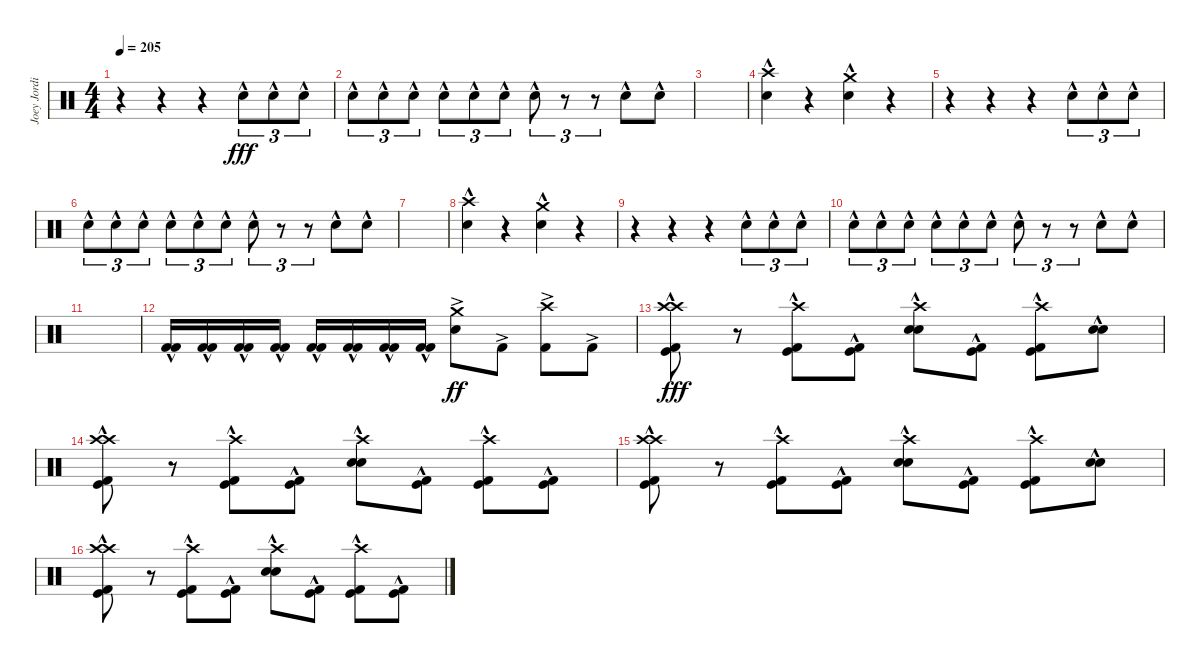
\track ("Joey Jordison" "Joey Jordi") {instrument percussion}
\staff {score}
\articulation defaults
\ts (4 4)
\tempo 205
\clef neutral
\ks c
r.4{dy fff} r.4 r.4 "Electric Snare (hit)"{hac}.8{tu (3 2)} "Electric Snare (hit)"{hac}.8{tu (3 2)} "Electric Snare (hit)"{hac}.8{tu (3 2)} |
"Electric Snare (hit)"{hac}.8{tu (3 2)} "Electric Snare (hit)"{hac}.8{tu (3 2)} "Electric Snare (hit)"{hac}.8{tu (3 2)} "Electric Snare (hit)"{hac}.8{tu (3 2)} "Electric Snare (hit)"{hac}.8{tu (3 2)} "Electric Snare (hit)"{hac}.8{tu (3 2)} "Electric Snare (hit)"{hac}.8{tu (3 2)} r.8{tu (3 2)} r.8{tu (3 2)} "Electric Snare (hit)"{hac}.8 "Electric Snare (hit)"{hac}.8 |
|
("Crash high (hit)"{hac} "Electric Snare (hit)"{hac}).4 r.4 ("Crash medium (hit)"{hac} "Electric Snare (hit)"{hac}).4 r.4 |
r.4 r.4 r.4 "Electric Snare (hit)"{hac}.8{tu (3 2)} "Electric Snare (hit)"{hac}.8{tu (3 2)} "Electric Snare (hit)"{hac}.8{tu (3 2)} |
"Electric Snare (hit)"{hac}.8{tu (3 2)} "Electric Snare (hit)"{hac}.8{tu (3 2)} "Electric Snare (hit)"{hac}.8{tu (3 2)} "Electric Snare (hit)"{hac}.8{tu (3 2)} "Electric Snare (hit)"{hac}.8{tu (3 2)} "Electric Snare (hit)"{hac}.8{tu (3 2)} "Electric Snare (hit)"{hac}.8{tu (3 2)} r.8{tu (3 2)} r.8{tu (3 2)} "Electric Snare (hit)"{hac}.8 "Electric Snare (hit)"{hac}.8 |
|
("Crash high (hit)"{hac} "Electric Snare (hit)"{hac}).4 r.4 ("Crash medium (hit)"{hac} "Electric Snare (hit)"{hac}).4 r.4 |
r.4 r.4 r.4 "Electric Snare (hit)"{hac}.8{tu (3 2)} "Electric Snare (hit)"{hac}.8{tu (3 2)} "Electric Snare (hit)"{hac}.8{tu (3 2)} |
"Electric Snare (hit)"{hac}.8{tu (3 2)} "Electric Snare (hit)"{hac}.8{tu (3 2)} "Electric Snare (hit)"{hac}.8{tu (3 2)} "Electric Snare (hit)"{hac}.8{tu (3 2)} "Electric Snare (hit)"{hac}.8{tu (3 2)} "Electric Snare (hit)"{hac}.8{tu (3 2)} "Electric Snare (hit)"{hac}.8{tu (3 2)} r.8{tu (3 2)} r.8{tu (3 2)} "Electric Snare (hit)"{hac}.8 "Electric Snare (hit)"{hac}.8 |
|
("Kick (hit) 2"{hac} "Kick (hit) 2"{hac}).16 ("Kick (hit) 2"{hac} "Kick (hit) 2"{hac}).16 ("Kick (hit) 2"{hac} "Kick (hit) 2"{hac}).16 ("Kick (hit) 2"{hac} "Kick (hit) 2"{hac}).16 ("Kick (hit) 2"{hac} "Kick (hit) 2"{hac}).16 ("Kick (hit) 2"{hac} "Kick (hit) 2"{hac}).16 ("Kick (hit) 2"{hac} "Kick (hit) 2"{hac}).16 ("Kick (hit) 2"{hac} "Kick (hit) 2"{hac}).16 ("Crash medium (hit)" "Electric Snare (hit)"{ac}).8{dy ff} "Kick (hit) 2"{ac}.8 ("Crash high (hit)"{ac} "Kick (hit) 2"{ac}).8 "Kick (hit) 2"{ac}.8 |
("Crash high (hit)"{hac} "Crash high (hit)"{hac} "Kick (hit)"{hac} "Kick (hit) 2"{hac}).8{dy fff} r.8 ("Crash high (hit)"{hac} "Kick (hit)"{hac} "Kick (hit) 2"{hac}).8 ("Kick (hit)"{hac} "Kick (hit) 2"{hac}).8 ("Crash high (hit)"{hac} "Electric Snare (hit)"{hac} "Electric Snare (hit)"{hac}).8 ("Kick (hit)"{hac} "Kick (hit) 2"{hac}).8 ("Crash high (hit)"{hac} "Kick (hit)"{hac} "Kick (hit) 2"{hac}).8 ("Electric Snare (hit)"{hac} "Electric Snare (hit)"{hac}).8 |
("Crash high (hit)"{hac} "Crash high (hit)"{hac} "Kick (hit)"{hac} "Kick (hit) 2"{hac}).8 r.8 ("Crash high (hit)"{hac} "Kick (hit)"{hac} "Kick (hit) 2"{hac}).8 ("Kick (hit)"{hac} "Kick (hit) 2"{hac}).8 ("Crash high (hit)"{hac} "Electric Snare (hit)"{hac} "Electric Snare (hit)"{hac}).8 ("Kick (hit)"{hac} "Kick (hit) 2"{hac}).8 ("Crash high (hit)"{hac} "Kick (hit)"{hac} "Kick (hit) 2"{hac}).8 ("Kick (hit)"{hac} "Kick (hit) 2"{hac}).8 |
("Crash high (hit)"{hac} "Crash high (hit)"{hac} "Kick (hit)"{hac} "Kick (hit) 2"{hac}).8 r.8 ("Crash high (hit)"{hac} "Kick (hit)"{hac} "Kick (hit) 2"{hac}).8 ("Kick (hit)"{hac} "Kick (hit) 2"{hac}).8 ("Crash high (hit)"{hac} "Electric Snare (hit)"{hac} "Electric Snare (hit)"{hac}).8 ("Kick (hit)"{hac} "Kick (hit) 2"{hac}).8 ("Crash high (hit)"{hac} "Kick (hit)"{hac} "Kick (hit) 2"{hac}).8 ("Electric Snare (hit)"{hac} "Electric Snare (hit)"{hac}).8 |
("Crash high (hit)"{hac} "Crash high (hit)"{hac} "Kick (hit)"{hac} "Kick (hit) 2"{hac}).8 r.8 ("Crash high (hit)"{hac} "Kick (hit)"{hac} "Kick (hit) 2"{hac}).8 ("Kick (hit)"{hac} "Kick (hit) 2"{hac}).8 ("Crash high (hit)"{hac} "Electric Snare (hit)"{hac} "Electric Snare (hit)"{hac}).8 ("Kick (hit)"{hac} "Kick (hit) 2"{hac}).8 ("Crash high (hit)"{hac} "Kick (hit)"{hac} "Kick (hit) 2"{hac}).8 ("Kick (hit)"{hac} "Kick (hit) 2"{hac}).8
